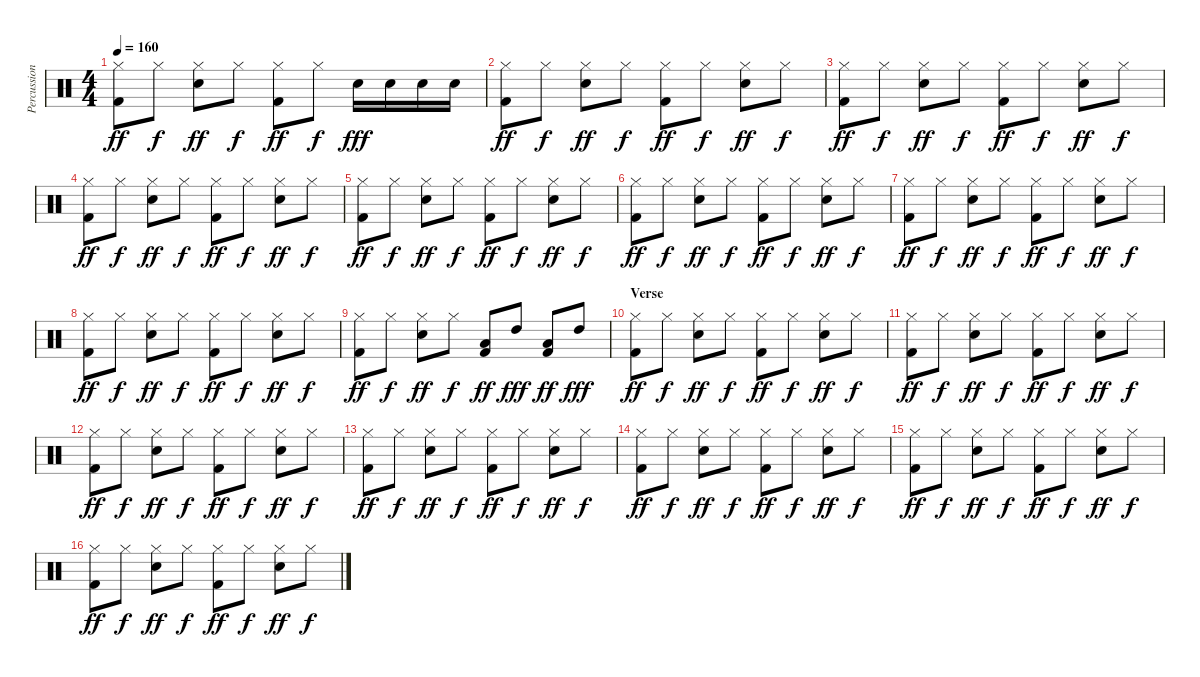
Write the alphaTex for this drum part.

\track ("Percussion" "Percussion") {instrument percussion}
\staff {score}
\articulation defaults
\ts (4 4)
\tempo 160
\clef neutral
\ks c
("Hi-Hat (closed)" "Kick (hit) 2").8{dy ff} "Hi-Hat (closed)".8{dy f} ("Hi-Hat (closed)" "Snare (hit) 2").8{dy ff} "Hi-Hat (closed)".8{dy f} ("Hi-Hat (closed)" "Kick (hit) 2").8{dy ff} "Hi-Hat (closed)".8{dy f} "Snare (hit) 2".16{dy fff} "Snare (hit) 2".16 "Snare (hit) 2".16 "Snare (hit) 2".16 |
("Hi-Hat (closed)" "Kick (hit) 2").8{dy ff} "Hi-Hat (closed)".8{dy f} ("Hi-Hat (closed)" "Snare (hit) 2").8{dy ff} "Hi-Hat (closed)".8{dy f} ("Hi-Hat (closed)" "Kick (hit) 2").8{dy ff} "Hi-Hat (closed)".8{dy f} ("Hi-Hat (closed)" "Snare (hit) 2").8{dy ff} "Hi-Hat (closed)".8{dy f} |
("Hi-Hat (closed)" "Kick (hit) 2").8{dy ff} "Hi-Hat (closed)".8{dy f} ("Hi-Hat (closed)" "Snare (hit) 2").8{dy ff} "Hi-Hat (closed)".8{dy f} ("Hi-Hat (closed)" "Kick (hit) 2").8{dy ff} "Hi-Hat (closed)".8{dy f} ("Hi-Hat (closed)" "Snare (hit) 2").8{dy ff} "Hi-Hat (closed)".8{dy f} |
("Hi-Hat (closed)" "Kick (hit) 2").8{dy ff} "Hi-Hat (closed)".8{dy f} ("Hi-Hat (closed)" "Snare (hit) 2").8{dy ff} "Hi-Hat (closed)".8{dy f} ("Hi-Hat (closed)" "Kick (hit) 2").8{dy ff} "Hi-Hat (closed)".8{dy f} ("Hi-Hat (closed)" "Snare (hit) 2").8{dy ff} "Hi-Hat (closed)".8{dy f} |
("Hi-Hat (closed)" "Kick (hit) 2").8{dy ff} "Hi-Hat (closed)".8{dy f} ("Hi-Hat (closed)" "Snare (hit) 2").8{dy ff} "Hi-Hat (closed)".8{dy f} ("Hi-Hat (closed)" "Kick (hit) 2").8{dy ff} "Hi-Hat (closed)".8{dy f} ("Hi-Hat (closed)" "Snare (hit) 2").8{dy ff} "Hi-Hat (closed)".8{dy f} |
("Hi-Hat (closed)" "Kick (hit) 2").8{dy ff} "Hi-Hat (closed)".8{dy f} ("Hi-Hat (closed)" "Snare (hit) 2").8{dy ff} "Hi-Hat (closed)".8{dy f} ("Hi-Hat (closed)" "Kick (hit) 2").8{dy ff} "Hi-Hat (closed)".8{dy f} ("Hi-Hat (closed)" "Snare (hit) 2").8{dy ff} "Hi-Hat (closed)".8{dy f} |
("Hi-Hat (closed)" "Kick (hit) 2").8{dy ff} "Hi-Hat (closed)".8{dy f} ("Hi-Hat (closed)" "Snare (hit) 2").8{dy ff} "Hi-Hat (closed)".8{dy f} ("Hi-Hat (closed)" "Kick (hit) 2").8{dy ff} "Hi-Hat (closed)".8{dy f} ("Hi-Hat (closed)" "Snare (hit) 2").8{dy ff} "Hi-Hat (closed)".8{dy f} |
("Hi-Hat (closed)" "Kick (hit) 2").8{dy ff} "Hi-Hat (closed)".8{dy f} ("Hi-Hat (closed)" "Snare (hit) 2").8{dy ff} "Hi-Hat (closed)".8{dy f} ("Hi-Hat (closed)" "Kick (hit) 2").8{dy ff} "Hi-Hat (closed)".8{dy f} ("Hi-Hat (closed)" "Snare (hit) 2").8{dy ff} "Hi-Hat (closed)".8{dy f} |
("Hi-Hat (closed)" "Kick (hit) 2").8{dy ff} "Hi-Hat (closed)".8{dy f} ("Hi-Hat (closed)" "Snare (hit) 2").8{dy ff} "Hi-Hat (closed)".8{dy f} ("Low Floor Tom (hit)" "Kick (hit) 2").8{dy ff} "High Tom (hit)".8{dy fff} ("Low Floor Tom (hit)" "Kick (hit) 2").8{dy ff} "High Tom (hit)".8{dy fff} |
\section ("" "Verse")
("Hi-Hat (closed)" "Kick (hit) 2").8{dy ff} "Hi-Hat (closed)".8{dy f} ("Hi-Hat (closed)" "Snare (hit) 2").8{dy ff} "Hi-Hat (closed)".8{dy f} ("Hi-Hat (closed)" "Kick (hit) 2").8{dy ff} "Hi-Hat (closed)".8{dy f} ("Hi-Hat (closed)" "Snare (hit) 2").8{dy ff} "Hi-Hat (closed)".8{dy f} |
("Hi-Hat (closed)" "Kick (hit) 2").8{dy ff} "Hi-Hat (closed)".8{dy f} ("Hi-Hat (closed)" "Snare (hit) 2").8{dy ff} "Hi-Hat (closed)".8{dy f} ("Hi-Hat (closed)" "Kick (hit) 2").8{dy ff} "Hi-Hat (closed)".8{dy f} ("Hi-Hat (closed)" "Snare (hit) 2").8{dy ff} "Hi-Hat (closed)".8{dy f} |
("Hi-Hat (closed)" "Kick (hit) 2").8{dy ff} "Hi-Hat (closed)".8{dy f} ("Hi-Hat (closed)" "Snare (hit) 2").8{dy ff} "Hi-Hat (closed)".8{dy f} ("Hi-Hat (closed)" "Kick (hit) 2").8{dy ff} "Hi-Hat (closed)".8{dy f} ("Hi-Hat (closed)" "Snare (hit) 2").8{dy ff} "Hi-Hat (closed)".8{dy f} |
("Hi-Hat (closed)" "Kick (hit) 2").8{dy ff} "Hi-Hat (closed)".8{dy f} ("Hi-Hat (closed)" "Snare (hit) 2").8{dy ff} "Hi-Hat (closed)".8{dy f} ("Hi-Hat (closed)" "Kick (hit) 2").8{dy ff} "Hi-Hat (closed)".8{dy f} ("Hi-Hat (closed)" "Snare (hit) 2").8{dy ff} "Hi-Hat (closed)".8{dy f} |
("Hi-Hat (closed)" "Kick (hit) 2").8{dy ff} "Hi-Hat (closed)".8{dy f} ("Hi-Hat (closed)" "Snare (hit) 2").8{dy ff} "Hi-Hat (closed)".8{dy f} ("Hi-Hat (closed)" "Kick (hit) 2").8{dy ff} "Hi-Hat (closed)".8{dy f} ("Hi-Hat (closed)" "Snare (hit) 2").8{dy ff} "Hi-Hat (closed)".8{dy f} |
("Hi-Hat (closed)" "Kick (hit) 2").8{dy ff} "Hi-Hat (closed)".8{dy f} ("Hi-Hat (closed)" "Snare (hit) 2").8{dy ff} "Hi-Hat (closed)".8{dy f} ("Hi-Hat (closed)" "Kick (hit) 2").8{dy ff} "Hi-Hat (closed)".8{dy f} ("Hi-Hat (closed)" "Snare (hit) 2").8{dy ff} "Hi-Hat (closed)".8{dy f} |
("Hi-Hat (closed)" "Kick (hit) 2").8{dy ff} "Hi-Hat (closed)".8{dy f} ("Hi-Hat (closed)" "Snare (hit) 2").8{dy ff} "Hi-Hat (closed)".8{dy f} ("Hi-Hat (closed)" "Kick (hit) 2").8{dy ff} "Hi-Hat (closed)".8{dy f} ("Hi-Hat (closed)" "Snare (hit) 2").8{dy ff} "Hi-Hat (closed)".8{dy f}
